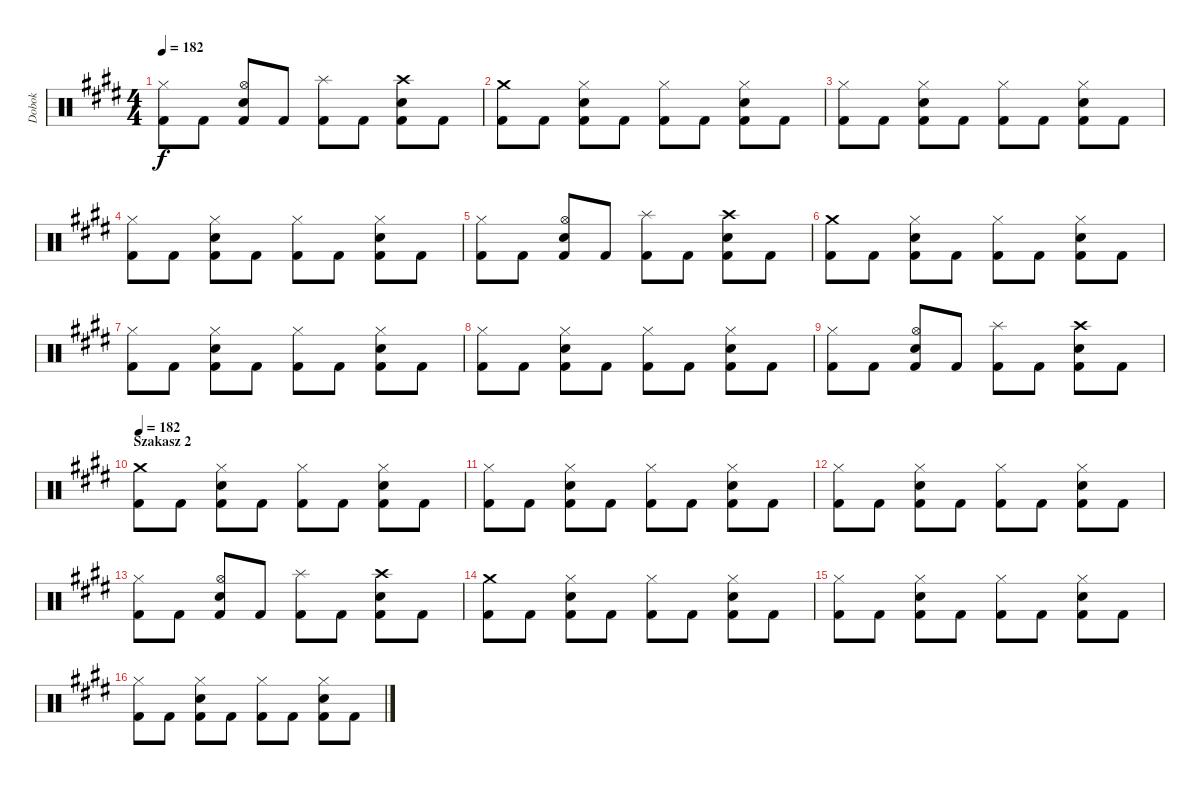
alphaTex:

\track ("Dobok" "Dobok") {instrument percussion}
\staff {score}
\articulation defaults
\ts (4 4)
\tempo 182
\clef neutral
\ks c#minor
("Hi-Hat (closed)" "Kick (hit) 2").8{dy f} "Kick (hit) 2".8 ("Hi-Hat (open)" "Snare (hit) 2" "Kick (hit) 2").8 "Kick (hit) 2".8 ("Splash (hit)" "Kick (hit) 2").8 "Kick (hit) 2".8 ("Crash high (hit)" "Snare (hit) 2" "Kick (hit) 2").8 "Kick (hit) 2".8 |
("Crash medium (hit)" "Kick (hit) 2").8 "Kick (hit) 2".8 ("Hi-Hat (closed)" "Snare (hit) 2" "Kick (hit) 2").8 "Kick (hit) 2".8 ("Hi-Hat (closed)" "Kick (hit) 2").8 "Kick (hit) 2".8 ("Hi-Hat (closed)" "Snare (hit) 2" "Kick (hit) 2").8 "Kick (hit) 2".8 |
("Hi-Hat (closed)" "Kick (hit) 2").8 "Kick (hit) 2".8 ("Hi-Hat (closed)" "Snare (hit) 2" "Kick (hit) 2").8 "Kick (hit) 2".8 ("Hi-Hat (closed)" "Kick (hit) 2").8 "Kick (hit) 2".8 ("Hi-Hat (closed)" "Snare (hit) 2" "Kick (hit) 2").8 "Kick (hit) 2".8 |
("Hi-Hat (closed)" "Kick (hit) 2").8 "Kick (hit) 2".8 ("Hi-Hat (closed)" "Snare (hit) 2" "Kick (hit) 2").8 "Kick (hit) 2".8 ("Hi-Hat (closed)" "Kick (hit) 2").8 "Kick (hit) 2".8 ("Hi-Hat (closed)" "Snare (hit) 2" "Kick (hit) 2").8 "Kick (hit) 2".8 |
("Hi-Hat (closed)" "Kick (hit) 2").8 "Kick (hit) 2".8 ("Hi-Hat (open)" "Snare (hit) 2" "Kick (hit) 2").8 "Kick (hit) 2".8 ("Splash (hit)" "Kick (hit) 2").8 "Kick (hit) 2".8 ("Crash high (hit)" "Snare (hit) 2" "Kick (hit) 2").8 "Kick (hit) 2".8 |
("Crash medium (hit)" "Kick (hit) 2").8 "Kick (hit) 2".8 ("Hi-Hat (closed)" "Snare (hit) 2" "Kick (hit) 2").8 "Kick (hit) 2".8 ("Hi-Hat (closed)" "Kick (hit) 2").8 "Kick (hit) 2".8 ("Hi-Hat (closed)" "Snare (hit) 2" "Kick (hit) 2").8 "Kick (hit) 2".8 |
("Hi-Hat (closed)" "Kick (hit) 2").8 "Kick (hit) 2".8 ("Hi-Hat (closed)" "Snare (hit) 2" "Kick (hit) 2").8 "Kick (hit) 2".8 ("Hi-Hat (closed)" "Kick (hit) 2").8 "Kick (hit) 2".8 ("Hi-Hat (closed)" "Snare (hit) 2" "Kick (hit) 2").8 "Kick (hit) 2".8 |
("Hi-Hat (closed)" "Kick (hit) 2").8 "Kick (hit) 2".8 ("Hi-Hat (closed)" "Snare (hit) 2" "Kick (hit) 2").8 "Kick (hit) 2".8 ("Hi-Hat (closed)" "Kick (hit) 2").8 "Kick (hit) 2".8 ("Hi-Hat (closed)" "Snare (hit) 2" "Kick (hit) 2").8 "Kick (hit) 2".8 |
("Hi-Hat (closed)" "Kick (hit) 2").8 "Kick (hit) 2".8 ("Hi-Hat (open)" "Snare (hit) 2" "Kick (hit) 2").8 "Kick (hit) 2".8 ("Splash (hit)" "Kick (hit) 2").8 "Kick (hit) 2".8 ("Crash high (hit)" "Snare (hit) 2" "Kick (hit) 2").8 "Kick (hit) 2".8 |
\section ("" "Szakasz 2")
\tempo 182
("Crash medium (hit)" "Kick (hit) 2").8 "Kick (hit) 2".8 ("Hi-Hat (closed)" "Snare (hit) 2" "Kick (hit) 2").8 "Kick (hit) 2".8 ("Hi-Hat (closed)" "Kick (hit) 2").8 "Kick (hit) 2".8 ("Hi-Hat (closed)" "Snare (hit) 2" "Kick (hit) 2").8 "Kick (hit) 2".8 |
("Hi-Hat (closed)" "Kick (hit) 2").8 "Kick (hit) 2".8 ("Hi-Hat (closed)" "Snare (hit) 2" "Kick (hit) 2").8 "Kick (hit) 2".8 ("Hi-Hat (closed)" "Kick (hit) 2").8 "Kick (hit) 2".8 ("Hi-Hat (closed)" "Snare (hit) 2" "Kick (hit) 2").8 "Kick (hit) 2".8 |
("Hi-Hat (closed)" "Kick (hit) 2").8 "Kick (hit) 2".8 ("Hi-Hat (closed)" "Snare (hit) 2" "Kick (hit) 2").8 "Kick (hit) 2".8 ("Hi-Hat (closed)" "Kick (hit) 2").8 "Kick (hit) 2".8 ("Hi-Hat (closed)" "Snare (hit) 2" "Kick (hit) 2").8 "Kick (hit) 2".8 |
("Hi-Hat (closed)" "Kick (hit) 2").8 "Kick (hit) 2".8 ("Hi-Hat (open)" "Snare (hit) 2" "Kick (hit) 2").8 "Kick (hit) 2".8 ("Splash (hit)" "Kick (hit) 2").8 "Kick (hit) 2".8 ("Crash high (hit)" "Snare (hit) 2" "Kick (hit) 2").8 "Kick (hit) 2".8 |
("Crash medium (hit)" "Kick (hit) 2").8 "Kick (hit) 2".8 ("Hi-Hat (closed)" "Snare (hit) 2" "Kick (hit) 2").8 "Kick (hit) 2".8 ("Hi-Hat (closed)" "Kick (hit) 2").8 "Kick (hit) 2".8 ("Hi-Hat (closed)" "Snare (hit) 2" "Kick (hit) 2").8 "Kick (hit) 2".8 |
("Hi-Hat (closed)" "Kick (hit) 2").8 "Kick (hit) 2".8 ("Hi-Hat (closed)" "Snare (hit) 2" "Kick (hit) 2").8 "Kick (hit) 2".8 ("Hi-Hat (closed)" "Kick (hit) 2").8 "Kick (hit) 2".8 ("Hi-Hat (closed)" "Snare (hit) 2" "Kick (hit) 2").8 "Kick (hit) 2".8 |
("Hi-Hat (closed)" "Kick (hit) 2").8 "Kick (hit) 2".8 ("Hi-Hat (closed)" "Snare (hit) 2" "Kick (hit) 2").8 "Kick (hit) 2".8 ("Hi-Hat (closed)" "Kick (hit) 2").8 "Kick (hit) 2".8 ("Hi-Hat (closed)" "Snare (hit) 2" "Kick (hit) 2").8 "Kick (hit) 2".8
